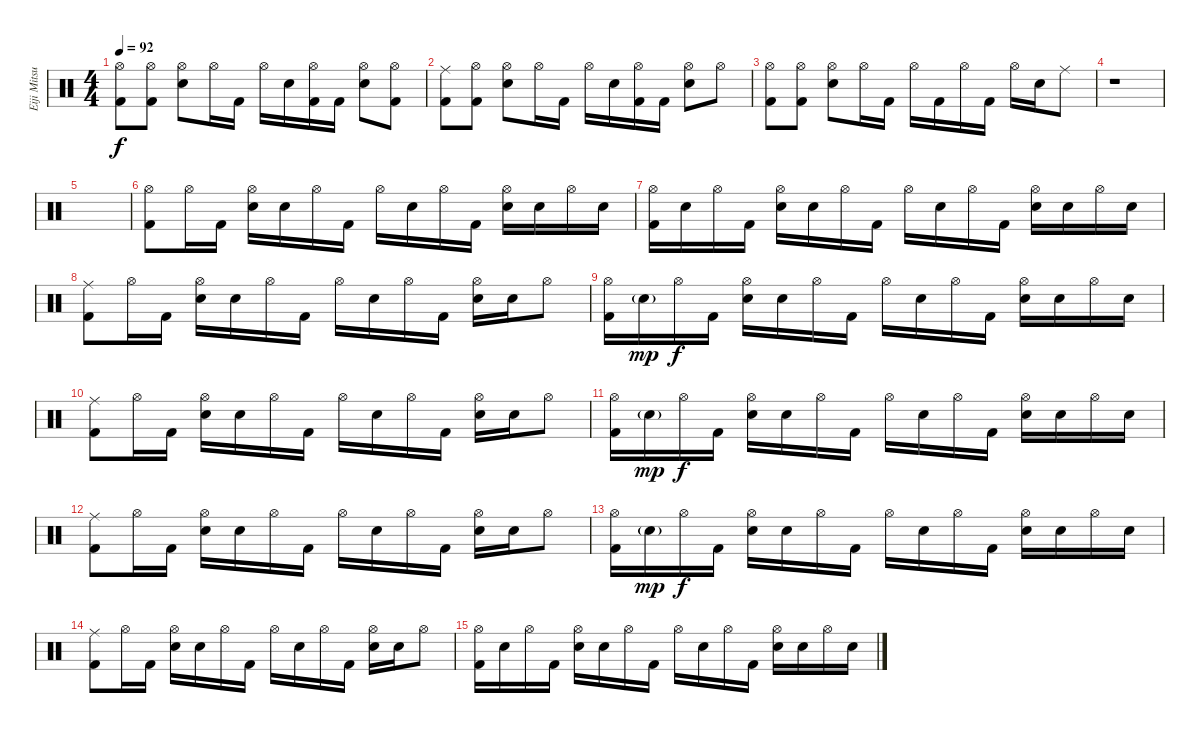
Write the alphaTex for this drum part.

\track ("Eiji Mitsuzono " "Eiji Mitsu") {instrument percussion}
\staff {score}
\articulation defaults
\ts (4 4)
\tempo 92
\clef neutral
\ks c
("Hi-Hat (open)" "Kick (hit) 2").8{dy f} ("Hi-Hat (open)" "Kick (hit) 2").8 ("Hi-Hat (open)" "Snare (hit) 2").8 "Hi-Hat (open)".16 "Kick (hit) 2".16 "Hi-Hat (open)".16 "Snare (hit) 2".16 ("Hi-Hat (open)" "Kick (hit) 2").16 "Kick (hit) 2".16 ("Hi-Hat (open)" "Snare (hit) 2").8 ("Hi-Hat (open)" "Kick (hit) 2").8 |
("Ride (middle)" "Kick (hit) 2").8 ("Hi-Hat (open)" "Kick (hit) 2").8 ("Hi-Hat (open)" "Snare (hit) 2").8 "Hi-Hat (open)".16 "Kick (hit) 2".16 "Hi-Hat (open)".16 "Snare (hit) 2".16 ("Hi-Hat (open)" "Kick (hit) 2").16 "Kick (hit) 2".16 ("Hi-Hat (open)" "Snare (hit) 2").8 "Hi-Hat (open)".8 |
("Hi-Hat (open)" "Kick (hit) 2").8 ("Hi-Hat (open)" "Kick (hit) 2").8 ("Hi-Hat (open)" "Snare (hit) 2").8 "Hi-Hat (open)".16 "Kick (hit) 2".16 "Hi-Hat (open)".16 "Kick (hit) 2".16 "Hi-Hat (open)".16 "Kick (hit) 2".16 "Hi-Hat (open)".16 "Snare (hit) 2".16 "Ride (middle)".8 |
r.1 |
|
("Hi-Hat (open)" "Kick (hit) 2").8 "Hi-Hat (open)".16 "Kick (hit) 2".16 ("Hi-Hat (open)" "Snare (hit) 2").16 "Snare (hit) 2".16 "Hi-Hat (open)".16 "Kick (hit) 2".16 "Hi-Hat (open)".16 "Snare (hit) 2".16 "Hi-Hat (open)".16 "Kick (hit) 2".16 ("Hi-Hat (open)" "Snare (hit) 2").16 "Snare (hit) 2".16 "Hi-Hat (open)".16 "Snare (hit) 2".16 |
("Hi-Hat (open)" "Kick (hit) 2").16 "Snare (hit) 2".16 "Hi-Hat (open)".16 "Kick (hit) 2".16 ("Hi-Hat (open)" "Snare (hit) 2").16 "Snare (hit) 2".16 "Hi-Hat (open)".16 "Kick (hit) 2".16 "Hi-Hat (open)".16 "Snare (hit) 2".16 "Hi-Hat (open)".16 "Kick (hit) 2".16 ("Hi-Hat (open)" "Snare (hit) 2").16 "Snare (hit) 2".16 "Hi-Hat (open)".16 "Snare (hit) 2".16 |
("Ride (middle)" "Kick (hit) 2").8 "Hi-Hat (open)".16 "Kick (hit) 2".16 ("Hi-Hat (open)" "Snare (hit) 2").16 "Snare (hit) 2".16 "Hi-Hat (open)".16 "Kick (hit) 2".16 "Hi-Hat (open)".16 "Snare (hit) 2".16 "Hi-Hat (open)".16 "Kick (hit) 2".16 ("Hi-Hat (open)" "Snare (hit) 2").16 "Snare (hit) 2".16 "Hi-Hat (open)".8 |
("Hi-Hat (open)" "Kick (hit) 2").16 "Snare (hit) 2"{g}.16{dy mp} "Hi-Hat (open)".16{dy f} "Kick (hit) 2".16 ("Hi-Hat (open)" "Snare (hit) 2").16 "Snare (hit) 2".16 "Hi-Hat (open)".16 "Kick (hit) 2".16 "Hi-Hat (open)".16 "Snare (hit) 2".16 "Hi-Hat (open)".16 "Kick (hit) 2".16 ("Hi-Hat (open)" "Snare (hit) 2").16 "Snare (hit) 2".16 "Hi-Hat (open)".16 "Snare (hit) 2".16 |
("Ride (middle)" "Kick (hit) 2").8 "Hi-Hat (open)".16 "Kick (hit) 2".16 ("Hi-Hat (open)" "Snare (hit) 2").16 "Snare (hit) 2".16 "Hi-Hat (open)".16 "Kick (hit) 2".16 "Hi-Hat (open)".16 "Snare (hit) 2".16 "Hi-Hat (open)".16 "Kick (hit) 2".16 ("Hi-Hat (open)" "Snare (hit) 2").16 "Snare (hit) 2".16 "Hi-Hat (open)".8 |
("Hi-Hat (open)" "Kick (hit) 2").16 "Snare (hit) 2"{g}.16{dy mp} "Hi-Hat (open)".16{dy f} "Kick (hit) 2".16 ("Hi-Hat (open)" "Snare (hit) 2").16 "Snare (hit) 2".16 "Hi-Hat (open)".16 "Kick (hit) 2".16 "Hi-Hat (open)".16 "Snare (hit) 2".16 "Hi-Hat (open)".16 "Kick (hit) 2".16 ("Hi-Hat (open)" "Snare (hit) 2").16 "Snare (hit) 2".16 "Hi-Hat (open)".16 "Snare (hit) 2".16 |
("Ride (middle)" "Kick (hit) 2").8 "Hi-Hat (open)".16 "Kick (hit) 2".16 ("Hi-Hat (open)" "Snare (hit) 2").16 "Snare (hit) 2".16 "Hi-Hat (open)".16 "Kick (hit) 2".16 "Hi-Hat (open)".16 "Snare (hit) 2".16 "Hi-Hat (open)".16 "Kick (hit) 2".16 ("Hi-Hat (open)" "Snare (hit) 2").16 "Snare (hit) 2".16 "Hi-Hat (open)".8 |
("Hi-Hat (open)" "Kick (hit) 2").16 "Snare (hit) 2"{g}.16{dy mp} "Hi-Hat (open)".16{dy f} "Kick (hit) 2".16 ("Hi-Hat (open)" "Snare (hit) 2").16 "Snare (hit) 2".16 "Hi-Hat (open)".16 "Kick (hit) 2".16 "Hi-Hat (open)".16 "Snare (hit) 2".16 "Hi-Hat (open)".16 "Kick (hit) 2".16 ("Hi-Hat (open)" "Snare (hit) 2").16 "Snare (hit) 2".16 "Hi-Hat (open)".16 "Snare (hit) 2".16 |
("Ride (middle)" "Kick (hit) 2").8 "Hi-Hat (open)".16 "Kick (hit) 2".16 ("Hi-Hat (open)" "Snare (hit) 2").16 "Snare (hit) 2".16 "Hi-Hat (open)".16 "Kick (hit) 2".16 "Hi-Hat (open)".16 "Snare (hit) 2".16 "Hi-Hat (open)".16 "Kick (hit) 2".16 ("Hi-Hat (open)" "Snare (hit) 2").16 "Snare (hit) 2".16 "Hi-Hat (open)".8 |
("Hi-Hat (open)" "Kick (hit) 2").16 "Snare (hit) 2".16 "Hi-Hat (open)".16 "Kick (hit) 2".16 ("Hi-Hat (open)" "Snare (hit) 2").16 "Snare (hit) 2".16 "Hi-Hat (open)".16 "Kick (hit) 2".16 "Hi-Hat (open)".16 "Snare (hit) 2".16 "Hi-Hat (open)".16 "Kick (hit) 2".16 ("Hi-Hat (open)" "Snare (hit) 2").16 "Snare (hit) 2".16 "Hi-Hat (open)".16 "Snare (hit) 2".16
